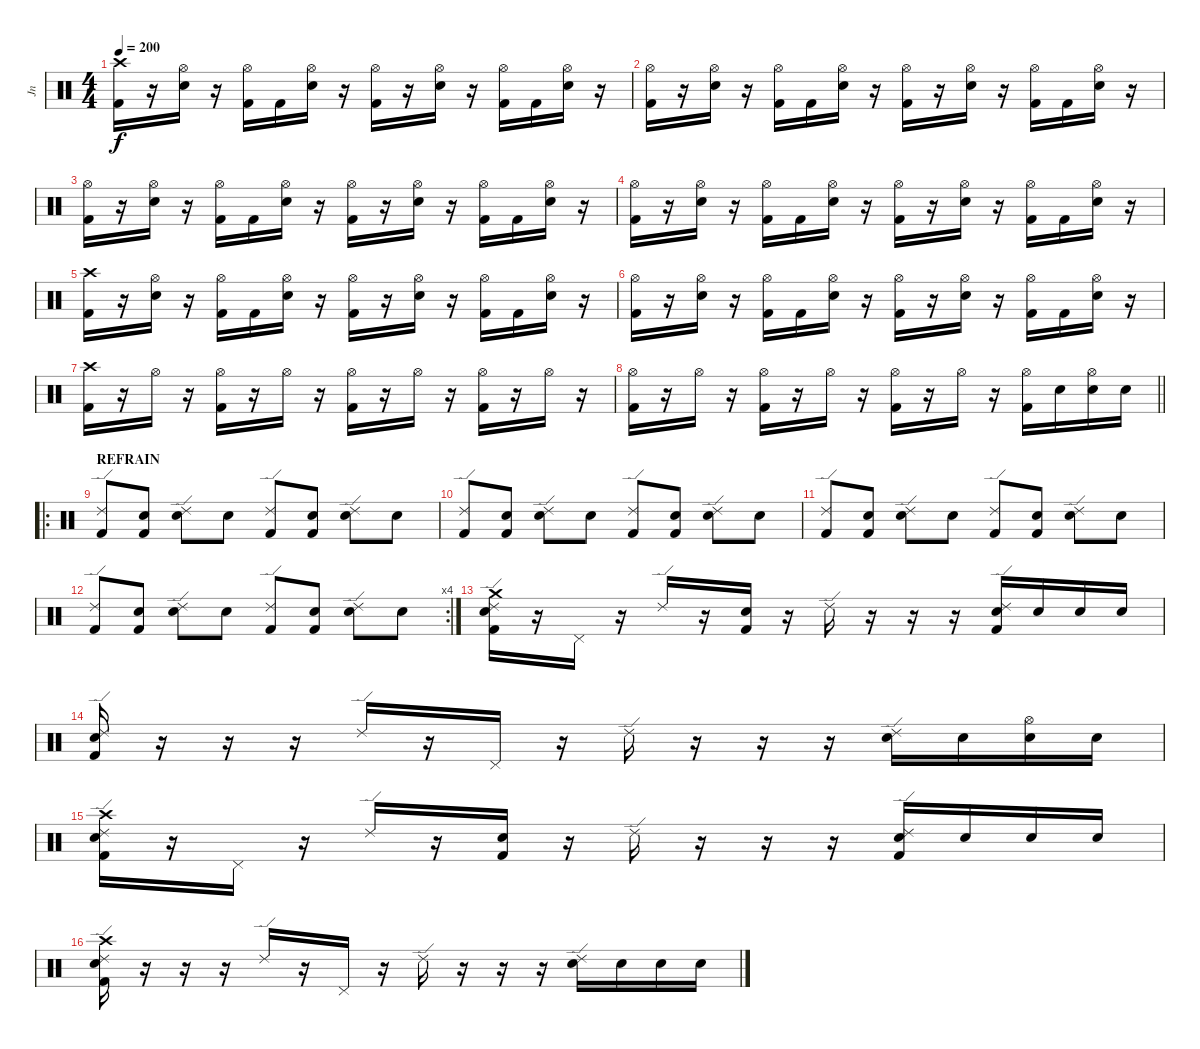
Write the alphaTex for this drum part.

\track ("Jn" "Jn") {instrument percussion}
\staff {score}
\articulation defaults
\ts (4 4)
\tempo 200
\clef neutral
\ks c
("Crash high (hit)" "Kick (hit) 2").16{dy f} r.16 ("Hi-Hat (open)" "Electric Snare (hit)").16 r.16 ("Hi-Hat (open)" "Kick (hit) 2").16 "Kick (hit) 2".16 ("Hi-Hat (open)" "Electric Snare (hit)").16 r.16 ("Hi-Hat (open)" "Kick (hit) 2").16 r.16 ("Hi-Hat (open)" "Electric Snare (hit)").16 r.16 ("Hi-Hat (open)" "Kick (hit) 2").16 "Kick (hit) 2".16 ("Hi-Hat (open)" "Electric Snare (hit)").16 r.16 |
("Hi-Hat (open)" "Kick (hit) 2").16 r.16 ("Hi-Hat (open)" "Electric Snare (hit)").16 r.16 ("Hi-Hat (open)" "Kick (hit) 2").16 "Kick (hit) 2".16 ("Hi-Hat (open)" "Electric Snare (hit)").16 r.16 ("Hi-Hat (open)" "Kick (hit) 2").16 r.16 ("Hi-Hat (open)" "Electric Snare (hit)").16 r.16 ("Hi-Hat (open)" "Kick (hit) 2").16 "Kick (hit) 2".16 ("Hi-Hat (open)" "Electric Snare (hit)").16 r.16 |
("Hi-Hat (open)" "Kick (hit) 2").16 r.16 ("Hi-Hat (open)" "Electric Snare (hit)").16 r.16 ("Hi-Hat (open)" "Kick (hit) 2").16 "Kick (hit) 2".16 ("Hi-Hat (open)" "Electric Snare (hit)").16 r.16 ("Hi-Hat (open)" "Kick (hit) 2").16 r.16 ("Hi-Hat (open)" "Electric Snare (hit)").16 r.16 ("Hi-Hat (open)" "Kick (hit) 2").16 "Kick (hit) 2".16 ("Hi-Hat (open)" "Electric Snare (hit)").16 r.16 |
("Hi-Hat (open)" "Kick (hit) 2").16 r.16 ("Hi-Hat (open)" "Electric Snare (hit)").16 r.16 ("Hi-Hat (open)" "Kick (hit) 2").16 "Kick (hit) 2".16 ("Hi-Hat (open)" "Electric Snare (hit)").16 r.16 ("Hi-Hat (open)" "Kick (hit) 2").16 r.16 ("Hi-Hat (open)" "Electric Snare (hit)").16 r.16 ("Hi-Hat (open)" "Kick (hit) 2").16 "Kick (hit) 2".16 ("Hi-Hat (open)" "Electric Snare (hit)").16 r.16 |
("Crash high (hit)" "Kick (hit) 2").16 r.16 ("Hi-Hat (open)" "Electric Snare (hit)").16 r.16 ("Hi-Hat (open)" "Kick (hit) 2").16 "Kick (hit) 2".16 ("Hi-Hat (open)" "Electric Snare (hit)").16 r.16 ("Hi-Hat (open)" "Kick (hit) 2").16 r.16 ("Hi-Hat (open)" "Electric Snare (hit)").16 r.16 ("Hi-Hat (open)" "Kick (hit) 2").16 "Kick (hit) 2".16 ("Hi-Hat (open)" "Electric Snare (hit)").16 r.16 |
("Hi-Hat (open)" "Kick (hit) 2").16 r.16 ("Hi-Hat (open)" "Electric Snare (hit)").16 r.16 ("Hi-Hat (open)" "Kick (hit) 2").16 "Kick (hit) 2".16 ("Hi-Hat (open)" "Electric Snare (hit)").16 r.16 ("Hi-Hat (open)" "Kick (hit) 2").16 r.16 ("Hi-Hat (open)" "Electric Snare (hit)").16 r.16 ("Hi-Hat (open)" "Kick (hit) 2").16 "Kick (hit) 2".16 ("Hi-Hat (open)" "Electric Snare (hit)").16 r.16 |
("Crash high (hit)" "Kick (hit) 2").16 r.16 "Hi-Hat (open)".16 r.16 ("Hi-Hat (open)" "Kick (hit) 2").16 r.16 "Hi-Hat (open)".16 r.16 ("Hi-Hat (open)" "Kick (hit) 2").16 r.16 "Hi-Hat (open)".16 r.16 ("Hi-Hat (open)" "Kick (hit) 2").16 r.16 "Hi-Hat (open)".16 r.16 |
\barLineRight lightlight
("Hi-Hat (open)" "Kick (hit) 2").16 r.16 "Hi-Hat (open)".16 r.16 ("Hi-Hat (open)" "Kick (hit) 2").16 r.16 "Hi-Hat (open)".16 r.16 ("Hi-Hat (open)" "Kick (hit) 2").16 r.16 "Hi-Hat (open)".16 r.16 ("Hi-Hat (open)" "Kick (hit) 2").16 "Electric Snare (hit)".16 ("Hi-Hat (open)" "Electric Snare (hit)").16 "Electric Snare (hit)".16 |
\ro
\section ("" "REFRAIN")
("Ride (edge) 2" "Kick (hit) 2").8 ("Snare (hit)" "Kick (hit) 2").8 ("Ride (edge) 2" "Electric Snare (hit)").8 "Snare (hit)".8 ("Ride (edge) 2" "Kick (hit) 2").8 ("Snare (hit)" "Kick (hit) 2").8 ("Ride (edge) 2" "Electric Snare (hit)").8 "Snare (hit)".8 |
("Ride (edge) 2" "Kick (hit) 2").8 ("Snare (hit)" "Kick (hit) 2").8 ("Ride (edge) 2" "Electric Snare (hit)").8 "Snare (hit)".8 ("Ride (edge) 2" "Kick (hit) 2").8 ("Snare (hit)" "Kick (hit) 2").8 ("Ride (edge) 2" "Electric Snare (hit)").8 "Snare (hit)".8 |
("Ride (edge) 2" "Kick (hit) 2").8 ("Snare (hit)" "Kick (hit) 2").8 ("Ride (edge) 2" "Electric Snare (hit)").8 "Snare (hit)".8 ("Ride (edge) 2" "Kick (hit) 2").8 ("Snare (hit)" "Kick (hit) 2").8 ("Ride (edge) 2" "Electric Snare (hit)").8 "Snare (hit)".8 |
\rc 4
("Ride (edge) 2" "Kick (hit) 2").8 ("Snare (hit)" "Kick (hit) 2").8 ("Ride (edge) 2" "Electric Snare (hit)").8 "Snare (hit)".8 ("Ride (edge) 2" "Kick (hit) 2").8 ("Snare (hit)" "Kick (hit) 2").8 ("Ride (edge) 2" "Electric Snare (hit)").8 "Snare (hit)".8 |
("Ride (edge) 2" "Crash medium (hit)" "Electric Snare (hit)" "Kick (hit) 2").16 r.16 "Pedal Hi-Hat (hit)".16 r.16 "Ride (edge) 2".16 r.16 ("Electric Snare (hit)" "Kick (hit) 2").16 r.16 "Ride (edge) 2".16 r.16 r.16 r.16 ("Ride (edge) 2" "Electric Snare (hit)" "Kick (hit) 2").16 "Electric Snare (hit)".16 "Electric Snare (hit)".16 "Electric Snare (hit)".16 |
("Ride (edge) 2" "Electric Snare (hit)" "Kick (hit) 2").16 r.16 r.16 r.16 "Ride (edge) 2".16 r.16 "Pedal Hi-Hat (hit)".16 r.16 "Ride (edge) 2".16 r.16 r.16 r.16 ("Ride (edge) 2" "Electric Snare (hit)").16 "Electric Snare (hit)".16 ("Hi-Hat (open)" "Electric Snare (hit)").16 "Electric Snare (hit)".16 |
("Ride (edge) 2" "Crash high (hit)" "Electric Snare (hit)" "Kick (hit) 2").16 r.16 "Pedal Hi-Hat (hit)".16 r.16 "Ride (edge) 2".16 r.16 ("Electric Snare (hit)" "Kick (hit) 2").16 r.16 "Ride (edge) 2".16 r.16 r.16 r.16 ("Ride (edge) 2" "Electric Snare (hit)" "Kick (hit) 2").16 "Electric Snare (hit)".16 "Electric Snare (hit)".16 "Electric Snare (hit)".16 |
("Ride (edge) 2" "Crash high (hit)" "Electric Snare (hit)" "Kick (hit) 2").16 r.16 r.16 r.16 "Ride (edge) 2".16 r.16 "Pedal Hi-Hat (hit)".16 r.16 "Ride (edge) 2".16 r.16 r.16 r.16 ("Ride (edge) 2" "Electric Snare (hit)").16 "Electric Snare (hit)".16 "Electric Snare (hit)".16 "Electric Snare (hit)".16
